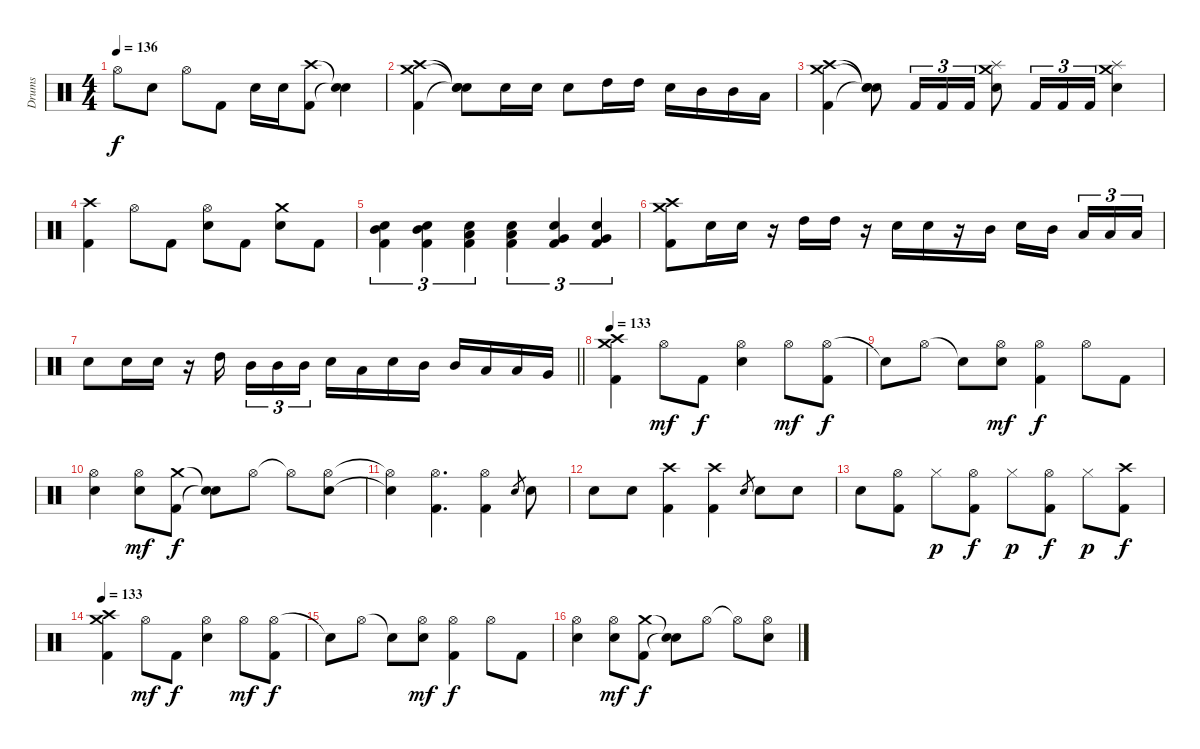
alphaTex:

\track ("Drums" "Drums") {instrument percussion}
\staff {score}
\articulation defaults
\ts (4 4)
\tempo 136
\clef neutral
\ks c "Hi-Hat (open)".8{dy f} "Electric Snare (hit)".8 "Hi-Hat (open)".8 "Kick (hit) 2".8 "Electric Snare (hit)".16 "Electric Snare (hit)".16
("Crash high (hit)" "Kick (hit) 2").8 ("Snare (hit)"{t} "Snare (hit)"{t}).4 |
("Crash high (hit)" "Crash medium (hit)" "Kick (hit) 2").4 ("Snare (hit)"{t} "Snare (hit)"{t} "Snare (hit)"{t}).8 "Electric Snare (hit)".16 "Electric Snare (hit)".16 "Electric Snare (hit)".8 "High Tom (hit)".16 "High Tom (hit)".16 "Electric Snare (hit)".16 "Mid Tom (hit)".16 "Mid Tom (hit)".16 "Low Tom (hit)".16 |
("Crash high (hit)" "Crash medium (hit)" "Kick (hit) 2").4 ("Snare (hit)"{t} "Snare (hit)"{t} "Snare (hit)"{t}).8 "Kick (hit) 2".16{tu (3 2)} "Kick (hit) 2".16{tu (3 2)} "Kick (hit) 2".16{tu (3 2)} ("Crash medium (hit)" "Splash (hit)" "Electric Snare (hit)").8 "Kick (hit) 2".16{tu (3 2)} "Kick (hit) 2".16{tu (3 2)} "Kick (hit) 2".16{tu (3 2)} ("Crash medium (hit)" "Splash (hit)" "Electric Snare (hit)").4 |
("Crash high (hit)" "Kick (hit) 2").4 "Hi-Hat (open)".8 "Kick (hit) 2".8 ("Hi-Hat (open)" "Electric Snare (hit)").8 "Kick (hit) 2".8 ("Crash medium (hit)" "Electric Snare (hit)").8 "Kick (hit) 2".8 |
("Mid Tom (hit)" "Electric Snare (hit)" "Kick (hit) 2").4{tu (3 2)} ("Mid Tom (hit)" "Electric Snare (hit)" "Kick (hit) 2").4{tu (3 2)} ("Low Tom (hit)" "Electric Snare (hit)" "Kick (hit) 2").4{tu (3 2)} ("Low Tom (hit)" "Electric Snare (hit)" "Kick (hit) 2").4{tu (3 2)} ("Very Low Tom (hit)" "Electric Snare (hit)" "Kick (hit) 2").4{tu (3 2)} ("Very Low Tom (hit)" "Electric Snare (hit)" "Kick (hit) 2").4{tu (3 2)} |
("Crash high (hit)" "Crash medium (hit)" "Kick (hit) 2").8 "Electric Snare (hit)".16 "Electric Snare (hit)".16 r.16 "High Tom (hit)".16 "High Tom (hit)".16 r.16 "Electric Snare (hit)".16 "Electric Snare (hit)".16 r.16 "Mid Tom (hit)".16 "Electric Snare (hit)".16 "Mid Tom (hit)".16 "Low Tom (hit)".16{tu (3 2)} "Low Tom (hit)".16{tu (3 2)} "Low Tom (hit)".16{tu (3 2)} |
\barLineRight lightlight "Electric Snare (hit)".8 "Electric Snare (hit)".16 "Electric Snare (hit)".16
r.16 "High Tom (hit)".16 "Mid Tom (hit)".16{tu (3 2)} "Mid Tom (hit)".16{tu (3 2)} "Mid Tom (hit)".16{tu (3 2)} "Electric Snare (hit)".16 "Low Tom (hit)".16 "Electric Snare (hit)".16 "Mid Tom (hit)".16 "Mid Tom (hit)".16 "Low Tom (hit)".16 "Low Tom (hit)".16 "Very Low Tom (hit)".16 |
\tempo 133
("Crash high (hit)" "Crash medium (hit)" "Kick (hit) 2").4 "Hi-Hat (open)".8{dy mf} "Kick (hit) 2".8{dy f} ("Hi-Hat (open)" "Electric Snare (hit)").4 "Hi-Hat (open)".8{dy mf} ("Hi-Hat (open)" "Kick (hit) 2").8{dy f} |
"Snare (hit)"{t}.8 "Hi-Hat (open)".8 "Snare (hit)"{t}.8 ("Hi-Hat (open)" "Electric Snare (hit)").8{dy mf} ("Hi-Hat (open)" "Kick (hit) 2").4{dy f} "Hi-Hat (open)".8 "Kick (hit) 2".8 |
("Hi-Hat (open)" "Electric Snare (hit)").4 ("Hi-Hat (open)" "Electric Snare (hit)").8{dy mf} ("Crash medium (hit)" "Kick (hit) 2").8{dy f} ("Snare (hit)"{t} "Snare (hit)"{t}).8 "Hi-Hat (open)".8 "Hi-Hat (open)"{t}.8 ("Hi-Hat (open)" "Electric Snare (hit)").8 |
("Hi-Hat (open)"{t} "Snare (hit)"{t}).4 ("Hi-Hat (open)" "Kick (hit) 2").4{d} ("Hi-Hat (open)" "Kick (hit) 2").4 "Electric Snare (hit)".8{gr} "Electric Snare (hit)".8 |
"Electric Snare (hit)".8 "Electric Snare (hit)".8 ("Crash high (hit)" "Kick (hit) 2").4 ("Crash high (hit)" "Kick (hit) 2").4 "Electric Snare (hit)".8{gr} "Electric Snare (hit)".8 "Electric Snare (hit)".8 |
"Electric Snare (hit)".8 ("Hi-Hat (open)" "Kick (hit) 2").8 "Hi-Hat (closed)".8{dy p} ("Hi-Hat (open)" "Kick (hit) 2").8{dy f} "Hi-Hat (closed)".8{dy p} ("Hi-Hat (open)" "Kick (hit) 2").8{dy f} "Hi-Hat (closed)".8{dy p} ("Crash high (hit)" "Kick (hit) 2").8{dy f} |
\tempo 133
("Crash high (hit)" "Crash medium (hit)" "Kick (hit) 2").4 "Hi-Hat (open)".8{dy mf} "Kick (hit) 2".8{dy f} ("Hi-Hat (open)" "Electric Snare (hit)").4 "Hi-Hat (open)".8{dy mf} ("Hi-Hat (open)" "Kick (hit) 2").8{dy f} |
"Snare (hit)"{t}.8 "Hi-Hat (open)".8 "Snare (hit)"{t}.8 ("Hi-Hat (open)" "Electric Snare (hit)").8{dy mf} ("Hi-Hat (open)" "Kick (hit) 2").4{dy f} "Hi-Hat (open)".8 "Kick (hit) 2".8 |
("Hi-Hat (open)" "Electric Snare (hit)").4 ("Hi-Hat (open)" "Electric Snare (hit)").8{dy mf} ("Crash medium (hit)" "Kick (hit) 2").8{dy f} ("Snare (hit)"{t} "Snare (hit)"{t}).8 "Hi-Hat (open)".8 "Hi-Hat (open)"{t}.8 ("Hi-Hat (open)" "Electric Snare (hit)").8
